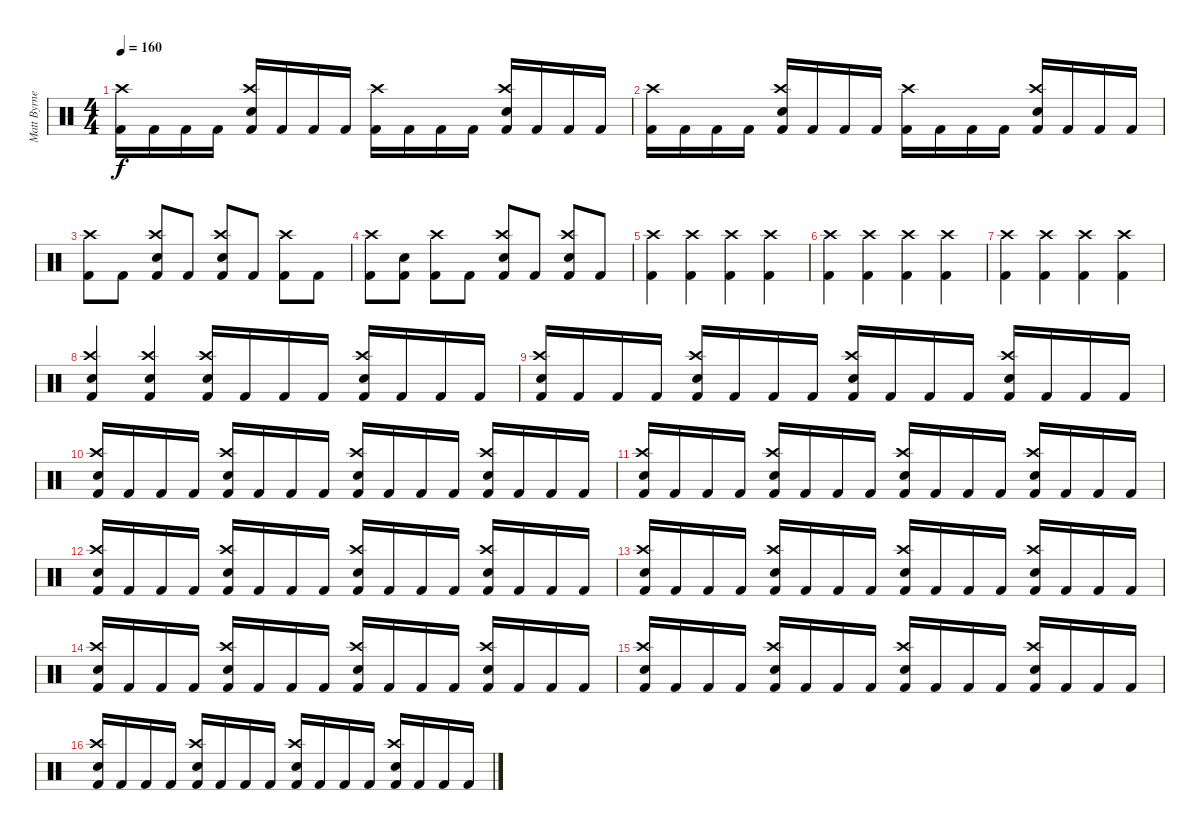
\track ("Matt Byrne" "Matt Byrne") {instrument percussion}
\staff {score}
\articulation defaults
\ts (4 4)
\tempo 160
\clef neutral
\ks c
("Kick (hit) 2" "Crash high (hit)").16{dy f} "Kick (hit) 2".16 "Kick (hit) 2".16 "Kick (hit) 2".16 ("Kick (hit) 2" "Snare (hit) 2" "Crash high (hit)").16 "Kick (hit) 2".16 "Kick (hit) 2".16 "Kick (hit) 2".16 ("Kick (hit) 2" "Crash high (hit)").16 "Kick (hit) 2".16 "Kick (hit) 2".16 "Kick (hit) 2".16 ("Kick (hit) 2" "Snare (hit) 2" "Crash high (hit)").16 "Kick (hit) 2".16 "Kick (hit) 2".16 "Kick (hit) 2".16 |
("Kick (hit) 2" "Crash high (hit)").16 "Kick (hit) 2".16 "Kick (hit) 2".16 "Kick (hit) 2".16 ("Kick (hit) 2" "Snare (hit) 2" "Crash high (hit)").16 "Kick (hit) 2".16 "Kick (hit) 2".16 "Kick (hit) 2".16 ("Kick (hit) 2" "Crash high (hit)").16 "Kick (hit) 2".16 "Kick (hit) 2".16 "Kick (hit) 2".16 ("Kick (hit) 2" "Snare (hit) 2" "Crash high (hit)").16 "Kick (hit) 2".16 "Kick (hit) 2".16 "Kick (hit) 2".16 |
("Kick (hit) 2" "Crash high (hit)").8 "Kick (hit) 2".8 ("Kick (hit) 2" "Snare (hit) 2" "Crash high (hit)").8 "Kick (hit) 2".8 ("Kick (hit) 2" "Snare (hit) 2" "Crash high (hit)").8 "Kick (hit) 2".8 ("Kick (hit) 2" "Crash high (hit)").8 "Kick (hit) 2".8 |
("Kick (hit) 2" "Crash high (hit)").8 ("Kick (hit) 2" "Snare (hit) 2").8 ("Kick (hit) 2" "Crash high (hit)").8 "Kick (hit) 2".8 ("Kick (hit) 2" "Snare (hit) 2" "Crash high (hit)").8 "Kick (hit) 2".8 ("Kick (hit) 2" "Snare (hit) 2" "Crash high (hit)").8 "Kick (hit) 2".8 |
\section ("" "")
("Kick (hit) 2" "Crash high (hit)").4 ("Kick (hit) 2" "Crash high (hit)").4 ("Kick (hit) 2" "Crash high (hit)").4 ("Kick (hit) 2" "Crash high (hit)").4 |
("Kick (hit) 2" "Crash high (hit)").4 ("Kick (hit) 2" "Crash high (hit)").4 ("Kick (hit) 2" "Crash high (hit)").4 ("Kick (hit) 2" "Crash high (hit)").4 |
("Kick (hit) 2" "Crash high (hit)").4 ("Kick (hit) 2" "Crash high (hit)").4 ("Kick (hit) 2" "Crash high (hit)").4 ("Kick (hit) 2" "Crash high (hit)").4 |
("Kick (hit) 2" "Crash high (hit)" "Snare (hit) 2").4 ("Kick (hit) 2" "Crash high (hit)" "Snare (hit) 2").4 ("Kick (hit) 2" "Crash high (hit)" "Snare (hit) 2").16 "Kick (hit) 2".16 "Kick (hit) 2".16 "Kick (hit) 2".16 ("Kick (hit) 2" "Crash high (hit)" "Snare (hit) 2").16 "Kick (hit) 2".16 "Kick (hit) 2".16 "Kick (hit) 2".16 |
("Kick (hit) 2" "Crash high (hit)" "Snare (hit) 2").16 "Kick (hit) 2".16 "Kick (hit) 2".16 "Kick (hit) 2".16 ("Kick (hit) 2" "Crash high (hit)" "Snare (hit) 2").16 "Kick (hit) 2".16 "Kick (hit) 2".16 "Kick (hit) 2".16 ("Kick (hit) 2" "Crash high (hit)" "Snare (hit) 2").16 "Kick (hit) 2".16 "Kick (hit) 2".16 "Kick (hit) 2".16 ("Kick (hit) 2" "Crash high (hit)" "Snare (hit) 2").16 "Kick (hit) 2".16 "Kick (hit) 2".16 "Kick (hit) 2".16 |
("Kick (hit) 2" "Crash high (hit)" "Snare (hit) 2").16 "Kick (hit) 2".16 "Kick (hit) 2".16 "Kick (hit) 2".16 ("Kick (hit) 2" "Crash high (hit)" "Snare (hit) 2").16 "Kick (hit) 2".16 "Kick (hit) 2".16 "Kick (hit) 2".16 ("Kick (hit) 2" "Crash high (hit)" "Snare (hit) 2").16 "Kick (hit) 2".16 "Kick (hit) 2".16 "Kick (hit) 2".16 ("Kick (hit) 2" "Crash high (hit)" "Snare (hit) 2").16 "Kick (hit) 2".16 "Kick (hit) 2".16 "Kick (hit) 2".16 |
("Kick (hit) 2" "Crash high (hit)" "Snare (hit) 2").16 "Kick (hit) 2".16 "Kick (hit) 2".16 "Kick (hit) 2".16 ("Kick (hit) 2" "Crash high (hit)" "Snare (hit) 2").16 "Kick (hit) 2".16 "Kick (hit) 2".16 "Kick (hit) 2".16 ("Kick (hit) 2" "Crash high (hit)" "Snare (hit) 2").16 "Kick (hit) 2".16 "Kick (hit) 2".16 "Kick (hit) 2".16 ("Kick (hit) 2" "Crash high (hit)" "Snare (hit) 2").16 "Kick (hit) 2".16 "Kick (hit) 2".16 "Kick (hit) 2".16 |
("Kick (hit) 2" "Crash high (hit)" "Snare (hit) 2").16 "Kick (hit) 2".16 "Kick (hit) 2".16 "Kick (hit) 2".16 ("Kick (hit) 2" "Crash high (hit)" "Snare (hit) 2").16 "Kick (hit) 2".16 "Kick (hit) 2".16 "Kick (hit) 2".16 ("Kick (hit) 2" "Crash high (hit)" "Snare (hit) 2").16 "Kick (hit) 2".16 "Kick (hit) 2".16 "Kick (hit) 2".16 ("Kick (hit) 2" "Crash high (hit)" "Snare (hit) 2").16 "Kick (hit) 2".16 "Kick (hit) 2".16 "Kick (hit) 2".16 |
("Kick (hit) 2" "Crash high (hit)" "Snare (hit) 2").16 "Kick (hit) 2".16 "Kick (hit) 2".16 "Kick (hit) 2".16 ("Kick (hit) 2" "Crash high (hit)" "Snare (hit) 2").16 "Kick (hit) 2".16 "Kick (hit) 2".16 "Kick (hit) 2".16 ("Kick (hit) 2" "Crash high (hit)" "Snare (hit) 2").16 "Kick (hit) 2".16 "Kick (hit) 2".16 "Kick (hit) 2".16 ("Kick (hit) 2" "Crash high (hit)" "Snare (hit) 2").16 "Kick (hit) 2".16 "Kick (hit) 2".16 "Kick (hit) 2".16 |
("Kick (hit) 2" "Crash high (hit)" "Snare (hit) 2").16 "Kick (hit) 2".16 "Kick (hit) 2".16 "Kick (hit) 2".16 ("Kick (hit) 2" "Crash high (hit)" "Snare (hit) 2").16 "Kick (hit) 2".16 "Kick (hit) 2".16 "Kick (hit) 2".16 ("Kick (hit) 2" "Crash high (hit)" "Snare (hit) 2").16 "Kick (hit) 2".16 "Kick (hit) 2".16 "Kick (hit) 2".16 ("Kick (hit) 2" "Crash high (hit)" "Snare (hit) 2").16 "Kick (hit) 2".16 "Kick (hit) 2".16 "Kick (hit) 2".16 |
("Kick (hit) 2" "Crash high (hit)" "Snare (hit) 2").16 "Kick (hit) 2".16 "Kick (hit) 2".16 "Kick (hit) 2".16 ("Kick (hit) 2" "Crash high (hit)" "Snare (hit) 2").16 "Kick (hit) 2".16 "Kick (hit) 2".16 "Kick (hit) 2".16 ("Kick (hit) 2" "Crash high (hit)" "Snare (hit) 2").16 "Kick (hit) 2".16 "Kick (hit) 2".16 "Kick (hit) 2".16 ("Kick (hit) 2" "Crash high (hit)" "Snare (hit) 2").16 "Kick (hit) 2".16 "Kick (hit) 2".16 "Kick (hit) 2".16 |
("Kick (hit) 2" "Crash high (hit)" "Snare (hit) 2").16 "Kick (hit) 2".16 "Kick (hit) 2".16 "Kick (hit) 2".16 ("Kick (hit) 2" "Crash high (hit)" "Snare (hit) 2").16 "Kick (hit) 2".16 "Kick (hit) 2".16 "Kick (hit) 2".16 ("Kick (hit) 2" "Crash high (hit)" "Snare (hit) 2").16 "Kick (hit) 2".16 "Kick (hit) 2".16 "Kick (hit) 2".16 ("Kick (hit) 2" "Crash high (hit)" "Snare (hit) 2").16 "Kick (hit) 2".16 "Kick (hit) 2".16 "Kick (hit) 2".16
